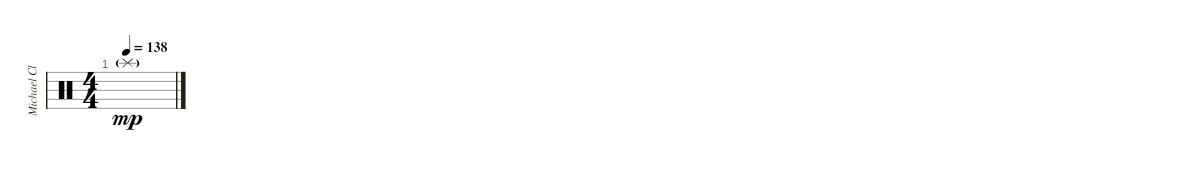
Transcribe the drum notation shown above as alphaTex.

\track ("Michael Clarke" "Michael Cl") {instrument percussion}
\staff {score}
\articulation defaults
\ts (4 4)
\tempo 138
\clef neutral
\ks c "Splash (hit)"{g}.1{dy mp}
